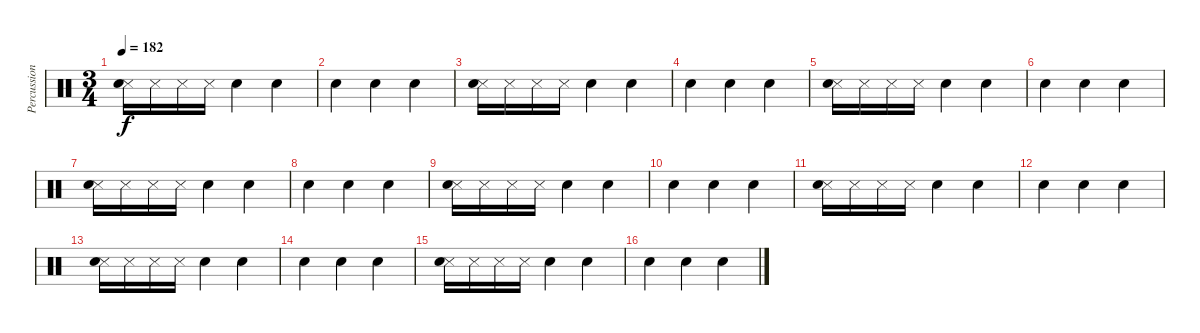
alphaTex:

\track ("Percussion" "Percussion") {instrument percussion}
\staff {score}
\articulation defaults
\ts (3 4)
\tempo 182
\clef neutral
\ks c
("Metronome (hit)" "Metronome (bell)").16{dy f} "Metronome (hit)".16 "Metronome (hit)".16 "Metronome (hit)".16 "Metronome (bell)".4 "Metronome (bell)".4 |
"Metronome (bell)".4 "Metronome (bell)".4 "Metronome (bell)".4 |
("Metronome (hit)" "Metronome (bell)").16 "Metronome (hit)".16 "Metronome (hit)".16 "Metronome (hit)".16 "Metronome (bell)".4 "Metronome (bell)".4 |
"Metronome (bell)".4 "Metronome (bell)".4 "Metronome (bell)".4 |
("Metronome (hit)" "Metronome (bell)").16 "Metronome (hit)".16 "Metronome (hit)".16 "Metronome (hit)".16 "Metronome (bell)".4 "Metronome (bell)".4 |
"Metronome (bell)".4 "Metronome (bell)".4 "Metronome (bell)".4 |
("Metronome (hit)" "Metronome (bell)").16 "Metronome (hit)".16 "Metronome (hit)".16 "Metronome (hit)".16 "Metronome (bell)".4 "Metronome (bell)".4 |
"Metronome (bell)".4 "Metronome (bell)".4 "Metronome (bell)".4 |
("Metronome (hit)" "Metronome (bell)").16 "Metronome (hit)".16 "Metronome (hit)".16 "Metronome (hit)".16 "Metronome (bell)".4 "Metronome (bell)".4 |
"Metronome (bell)".4 "Metronome (bell)".4 "Metronome (bell)".4 |
("Metronome (hit)" "Metronome (bell)").16 "Metronome (hit)".16 "Metronome (hit)".16 "Metronome (hit)".16 "Metronome (bell)".4 "Metronome (bell)".4 |
"Metronome (bell)".4 "Metronome (bell)".4 "Metronome (bell)".4 |
("Metronome (hit)" "Metronome (bell)").16 "Metronome (hit)".16 "Metronome (hit)".16 "Metronome (hit)".16 "Metronome (bell)".4 "Metronome (bell)".4 |
"Metronome (bell)".4 "Metronome (bell)".4 "Metronome (bell)".4 |
("Metronome (hit)" "Metronome (bell)").16 "Metronome (hit)".16 "Metronome (hit)".16 "Metronome (hit)".16 "Metronome (bell)".4 "Metronome (bell)".4 |
"Metronome (bell)".4 "Metronome (bell)".4 "Metronome (bell)".4
